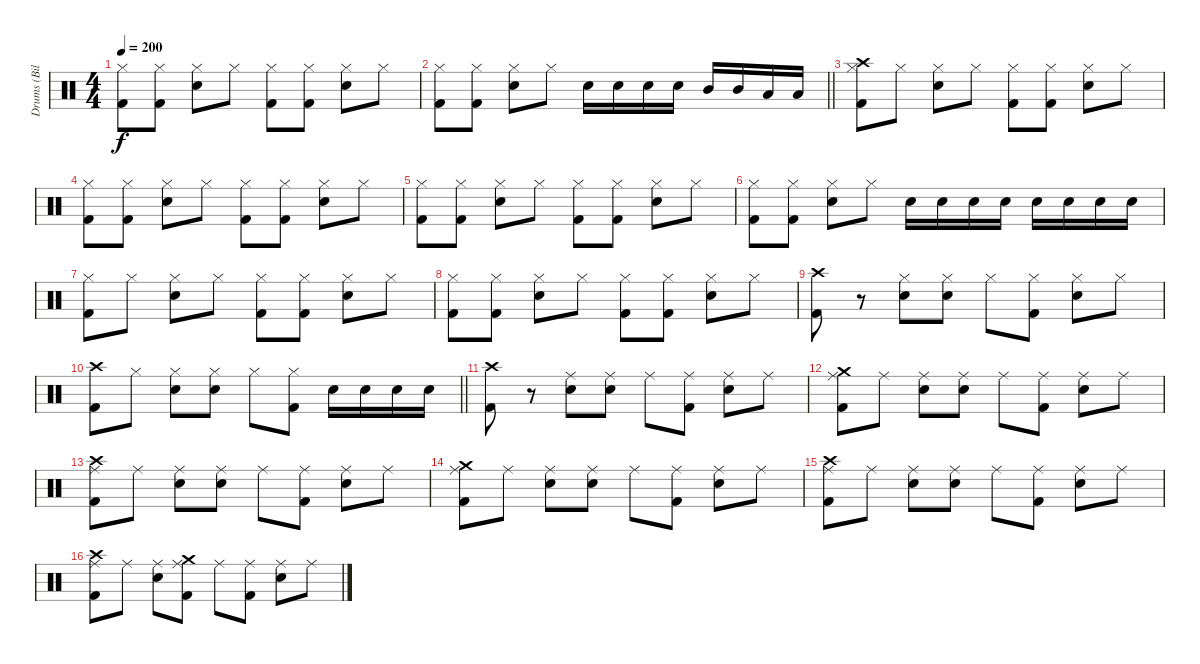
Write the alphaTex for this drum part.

\track ("Drums (Bill Stevenson)" "Drums (Bil") {instrument percussion}
\staff {score}
\articulation defaults
\ts (4 4)
\tempo 200
\clef neutral
\ks c
("Hi-Hat (closed)" "Kick (hit) 2").8{dy f} ("Hi-Hat (closed)" "Kick (hit) 2").8 ("Hi-Hat (closed)" "Electric Snare (hit)").8 "Hi-Hat (closed)".8 ("Hi-Hat (closed)" "Kick (hit) 2").8 ("Hi-Hat (closed)" "Kick (hit) 2").8 ("Hi-Hat (closed)" "Electric Snare (hit)").8 "Hi-Hat (closed)".8 |
\barLineRight lightlight
("Hi-Hat (closed)" "Kick (hit) 2").8 ("Hi-Hat (closed)" "Kick (hit) 2").8 ("Hi-Hat (closed)" "Electric Snare (hit)").8 "Hi-Hat (closed)".8 "Electric Snare (hit)".16 "Electric Snare (hit)".16 "Electric Snare (hit)".16 "Electric Snare (hit)".16 "Mid Tom (hit)".16 "Mid Tom (hit)".16 "Low Tom (hit)".16 "Low Tom (hit)".16 |
("Hi-Hat (closed)" "Crash high (hit)" "Kick (hit) 2").8 "Hi-Hat (closed)".8 ("Hi-Hat (closed)" "Electric Snare (hit)").8 "Hi-Hat (closed)".8 ("Hi-Hat (closed)" "Kick (hit) 2").8 ("Hi-Hat (closed)" "Kick (hit) 2").8 ("Hi-Hat (closed)" "Electric Snare (hit)").8 "Hi-Hat (closed)".8 |
("Hi-Hat (closed)" "Kick (hit) 2").8 ("Hi-Hat (closed)" "Kick (hit) 2").8 ("Hi-Hat (closed)" "Electric Snare (hit)").8 "Hi-Hat (closed)".8 ("Hi-Hat (closed)" "Kick (hit) 2").8 ("Hi-Hat (closed)" "Kick (hit) 2").8 ("Hi-Hat (closed)" "Electric Snare (hit)").8 "Hi-Hat (closed)".8 |
("Hi-Hat (closed)" "Kick (hit) 2").8 ("Hi-Hat (closed)" "Kick (hit) 2").8 ("Hi-Hat (closed)" "Electric Snare (hit)").8 "Hi-Hat (closed)".8 ("Hi-Hat (closed)" "Kick (hit) 2").8 ("Hi-Hat (closed)" "Kick (hit) 2").8 ("Hi-Hat (closed)" "Electric Snare (hit)").8 "Hi-Hat (closed)".8 |
("Hi-Hat (closed)" "Kick (hit) 2").8 ("Hi-Hat (closed)" "Kick (hit) 2").8 ("Hi-Hat (closed)" "Electric Snare (hit)").8 "Hi-Hat (closed)".8 "Electric Snare (hit)".16 "Electric Snare (hit)".16 "Electric Snare (hit)".16 "Electric Snare (hit)".16 "Electric Snare (hit)".16 "Electric Snare (hit)".16 "Electric Snare (hit)".16 "Electric Snare (hit)".16 |
("Hi-Hat (closed)" "Kick (hit) 2").8 "Hi-Hat (closed)".8 ("Hi-Hat (closed)" "Electric Snare (hit)").8 "Hi-Hat (closed)".8 ("Hi-Hat (closed)" "Kick (hit) 2").8 ("Hi-Hat (closed)" "Kick (hit) 2").8 ("Hi-Hat (closed)" "Electric Snare (hit)").8 "Hi-Hat (closed)".8 |
("Hi-Hat (closed)" "Kick (hit) 2").8 ("Hi-Hat (closed)" "Kick (hit) 2").8 ("Hi-Hat (closed)" "Electric Snare (hit)").8 "Hi-Hat (closed)".8 ("Hi-Hat (closed)" "Kick (hit) 2").8 ("Hi-Hat (closed)" "Kick (hit) 2").8 ("Hi-Hat (closed)" "Electric Snare (hit)").8 "Hi-Hat (closed)".8 |
("Crash high (hit)" "Kick (hit) 2").8 r.8 ("Hi-Hat (closed)" "Electric Snare (hit)").8 ("Hi-Hat (closed)" "Electric Snare (hit)").8 "Hi-Hat (closed)".8 ("Hi-Hat (closed)" "Kick (hit) 2").8 ("Hi-Hat (closed)" "Electric Snare (hit)").8 "Hi-Hat (closed)".8 |
\barLineRight lightlight
("Crash high (hit)" "Kick (hit) 2").8 "Hi-Hat (closed)".8 ("Hi-Hat (closed)" "Electric Snare (hit)").8 ("Hi-Hat (closed)" "Electric Snare (hit)").8 "Hi-Hat (closed)".8 ("Hi-Hat (closed)" "Kick (hit) 2").8 "Electric Snare (hit)".16 "Electric Snare (hit)".16 "Electric Snare (hit)".16 "Electric Snare (hit)".16 |
("Crash high (hit)" "Kick (hit) 2").8 r.8 ("Ride (middle)" "Electric Snare (hit)").8 ("Ride (middle)" "Electric Snare (hit)").8 "Ride (middle)".8 ("Ride (middle)" "Kick (hit) 2").8 ("Ride (middle)" "Electric Snare (hit)").8 "Ride (middle)".8 |
("Ride (middle)" "Crash medium (hit)" "Kick (hit) 2").8 "Ride (middle)".8 ("Ride (middle)" "Electric Snare (hit)").8 ("Ride (middle)" "Electric Snare (hit)").8 "Ride (middle)".8 ("Ride (middle)" "Kick (hit) 2").8 ("Ride (middle)" "Electric Snare (hit)").8 "Ride (middle)".8 |
("Ride (middle)" "Crash high (hit)" "Kick (hit) 2").8 "Ride (middle)".8 ("Ride (middle)" "Electric Snare (hit)").8 ("Ride (middle)" "Electric Snare (hit)").8 "Ride (middle)".8 ("Ride (middle)" "Kick (hit) 2").8 ("Ride (middle)" "Electric Snare (hit)").8 "Ride (middle)".8 |
("Ride (middle)" "Crash medium (hit)" "Kick (hit) 2").8 "Ride (middle)".8 ("Ride (middle)" "Electric Snare (hit)").8 ("Ride (middle)" "Electric Snare (hit)").8 "Ride (middle)".8 ("Ride (middle)" "Kick (hit) 2").8 ("Ride (middle)" "Electric Snare (hit)").8 "Ride (middle)".8 |
("Ride (middle)" "Crash high (hit)" "Kick (hit) 2").8 "Ride (middle)".8 ("Ride (middle)" "Electric Snare (hit)").8 ("Ride (middle)" "Electric Snare (hit)").8 "Ride (middle)".8 ("Ride (middle)" "Kick (hit) 2").8 ("Ride (middle)" "Electric Snare (hit)").8 "Ride (middle)".8 |
("Ride (middle)" "Crash high (hit)" "Kick (hit) 2").8 "Ride (middle)".8 ("Ride (middle)" "Electric Snare (hit)").8 ("Ride (middle)" "Crash medium (hit)" "Kick (hit) 2").8 "Ride (middle)".8 ("Ride (middle)" "Kick (hit) 2").8 ("Ride (middle)" "Electric Snare (hit)").8 "Ride (middle)".8
